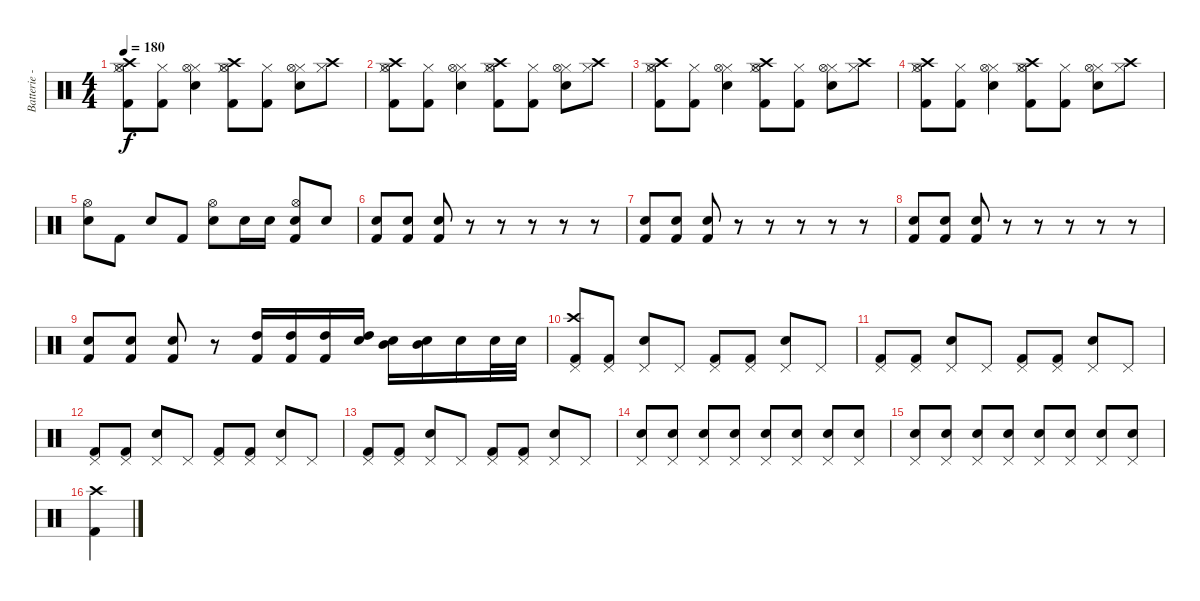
\track ("Batterie - Stevo" "Batterie -") {instrument percussion}
\staff {score}
\articulation defaults
\ts (4 4)
\tempo 180
\clef neutral
\ks c
("Hi-Hat (closed)" "Kick (hit) 2" "Hi-Hat (open)" "Crash high (hit)").8{dy f} ("Hi-Hat (closed)" "Kick (hit) 2").8 ("Hi-Hat (closed)" "Electric Snare (hit)" "Hi-Hat (open)").4 ("Hi-Hat (closed)" "Kick (hit) 2" "Hi-Hat (open)" "Crash high (hit)").8 ("Hi-Hat (closed)" "Kick (hit) 2").8 ("Hi-Hat (closed)" "Electric Snare (hit)" "Hi-Hat (open)").8 ("Hi-Hat (closed)" "Crash high (hit)").8 |
("Hi-Hat (closed)" "Kick (hit) 2" "Hi-Hat (open)" "Crash high (hit)").8 ("Hi-Hat (closed)" "Kick (hit) 2").8 ("Hi-Hat (closed)" "Electric Snare (hit)" "Hi-Hat (open)").4 ("Hi-Hat (closed)" "Kick (hit) 2" "Hi-Hat (open)" "Crash high (hit)").8 ("Hi-Hat (closed)" "Kick (hit) 2").8 ("Hi-Hat (closed)" "Electric Snare (hit)" "Hi-Hat (open)").8 ("Hi-Hat (closed)" "Crash high (hit)").8 |
("Hi-Hat (closed)" "Kick (hit) 2" "Hi-Hat (open)" "Crash high (hit)").8 ("Hi-Hat (closed)" "Kick (hit) 2").8 ("Hi-Hat (closed)" "Electric Snare (hit)" "Hi-Hat (open)").4 ("Hi-Hat (closed)" "Kick (hit) 2" "Hi-Hat (open)" "Crash high (hit)").8 ("Hi-Hat (closed)" "Kick (hit) 2").8 ("Hi-Hat (closed)" "Electric Snare (hit)" "Hi-Hat (open)").8 ("Hi-Hat (closed)" "Crash high (hit)").8 |
("Hi-Hat (closed)" "Kick (hit) 2" "Hi-Hat (open)" "Crash high (hit)").8 ("Hi-Hat (closed)" "Kick (hit) 2").8 ("Hi-Hat (closed)" "Electric Snare (hit)" "Hi-Hat (open)").4 ("Hi-Hat (closed)" "Kick (hit) 2" "Hi-Hat (open)" "Crash high (hit)").8 ("Hi-Hat (closed)" "Kick (hit) 2").8 ("Hi-Hat (closed)" "Electric Snare (hit)" "Hi-Hat (open)").8 ("Hi-Hat (closed)" "Crash high (hit)").8 |
("Electric Snare (hit)" "Hi-Hat (open)").8 "Kick (hit) 2".8 "Electric Snare (hit)".8 "Kick (hit) 2".8 ("Electric Snare (hit)" "Hi-Hat (open)").8 "Electric Snare (hit)".16 "Electric Snare (hit)".16 ("Electric Snare (hit)" "Kick (hit) 2" "Hi-Hat (open)").8 "Electric Snare (hit)".8 |
("Electric Snare (hit)" "Kick (hit) 2").8 ("Electric Snare (hit)" "Kick (hit) 2").8 ("Electric Snare (hit)" "Kick (hit) 2").8 r.8 r.8 r.8 r.8 r.8 |
("Electric Snare (hit)" "Kick (hit) 2").8 ("Electric Snare (hit)" "Kick (hit) 2").8 ("Electric Snare (hit)" "Kick (hit) 2").8 r.8 r.8 r.8 r.8 r.8 |
("Electric Snare (hit)" "Kick (hit) 2").8 ("Electric Snare (hit)" "Kick (hit) 2").8 ("Electric Snare (hit)" "Kick (hit) 2").8 r.8 r.8 r.8 r.8 r.8 |
("Electric Snare (hit)" "Kick (hit) 2").8 ("Electric Snare (hit)" "Kick (hit) 2").8 ("Electric Snare (hit)" "Kick (hit) 2").8 r.8 ("High Tom (hit)" "Kick (hit) 2").16 ("High Tom (hit)" "Kick (hit) 2").16 ("High Tom (hit)" "Kick (hit) 2").16 ("High Tom (hit)" "Electric Snare (hit)").16 ("Mid Tom (hit)" "Electric Snare (hit)").16 ("Mid Tom (hit)" "Electric Snare (hit)").16 "Electric Snare (hit)".16 "Electric Snare (hit)".32 "Electric Snare (hit)".32 |
("Pedal Hi-Hat (hit)" "Crash high (hit)" "Kick (hit) 2").8 ("Pedal Hi-Hat (hit)" "Kick (hit) 2").8 ("Pedal Hi-Hat (hit)" "Electric Snare (hit)").8 "Pedal Hi-Hat (hit)".8 ("Pedal Hi-Hat (hit)" "Kick (hit) 2").8 ("Pedal Hi-Hat (hit)" "Kick (hit) 2").8 ("Pedal Hi-Hat (hit)" "Electric Snare (hit)").8 "Pedal Hi-Hat (hit)".8 |
("Pedal Hi-Hat (hit)" "Kick (hit) 2").8 ("Pedal Hi-Hat (hit)" "Kick (hit) 2").8 ("Pedal Hi-Hat (hit)" "Electric Snare (hit)").8 "Pedal Hi-Hat (hit)".8 ("Pedal Hi-Hat (hit)" "Kick (hit) 2").8 ("Pedal Hi-Hat (hit)" "Kick (hit) 2").8 ("Pedal Hi-Hat (hit)" "Electric Snare (hit)").8 "Pedal Hi-Hat (hit)".8 |
("Pedal Hi-Hat (hit)" "Kick (hit) 2").8 ("Pedal Hi-Hat (hit)" "Kick (hit) 2").8 ("Pedal Hi-Hat (hit)" "Electric Snare (hit)").8 "Pedal Hi-Hat (hit)".8 ("Pedal Hi-Hat (hit)" "Kick (hit) 2").8 ("Pedal Hi-Hat (hit)" "Kick (hit) 2").8 ("Pedal Hi-Hat (hit)" "Electric Snare (hit)").8 "Pedal Hi-Hat (hit)".8 |
("Pedal Hi-Hat (hit)" "Kick (hit) 2").8 ("Pedal Hi-Hat (hit)" "Kick (hit) 2").8 ("Pedal Hi-Hat (hit)" "Electric Snare (hit)").8 "Pedal Hi-Hat (hit)".8 ("Pedal Hi-Hat (hit)" "Kick (hit) 2").8 ("Pedal Hi-Hat (hit)" "Kick (hit) 2").8 ("Pedal Hi-Hat (hit)" "Electric Snare (hit)").8 "Pedal Hi-Hat (hit)".8 |
("Pedal Hi-Hat (hit)" "Electric Snare (hit)").8 ("Pedal Hi-Hat (hit)" "Electric Snare (hit)").8 ("Pedal Hi-Hat (hit)" "Electric Snare (hit)").8 ("Pedal Hi-Hat (hit)" "Electric Snare (hit)").8 ("Pedal Hi-Hat (hit)" "Electric Snare (hit)").8 ("Pedal Hi-Hat (hit)" "Electric Snare (hit)").8 ("Pedal Hi-Hat (hit)" "Electric Snare (hit)").8 ("Pedal Hi-Hat (hit)" "Electric Snare (hit)").8 |
("Pedal Hi-Hat (hit)" "Electric Snare (hit)").8 ("Pedal Hi-Hat (hit)" "Electric Snare (hit)").8 ("Pedal Hi-Hat (hit)" "Electric Snare (hit)").8 ("Pedal Hi-Hat (hit)" "Electric Snare (hit)").8 ("Pedal Hi-Hat (hit)" "Electric Snare (hit)").8 ("Pedal Hi-Hat (hit)" "Electric Snare (hit)").8 ("Pedal Hi-Hat (hit)" "Electric Snare (hit)").8 ("Pedal Hi-Hat (hit)" "Electric Snare (hit)").8 |
("Crash high (hit)" "Kick (hit) 2").4
